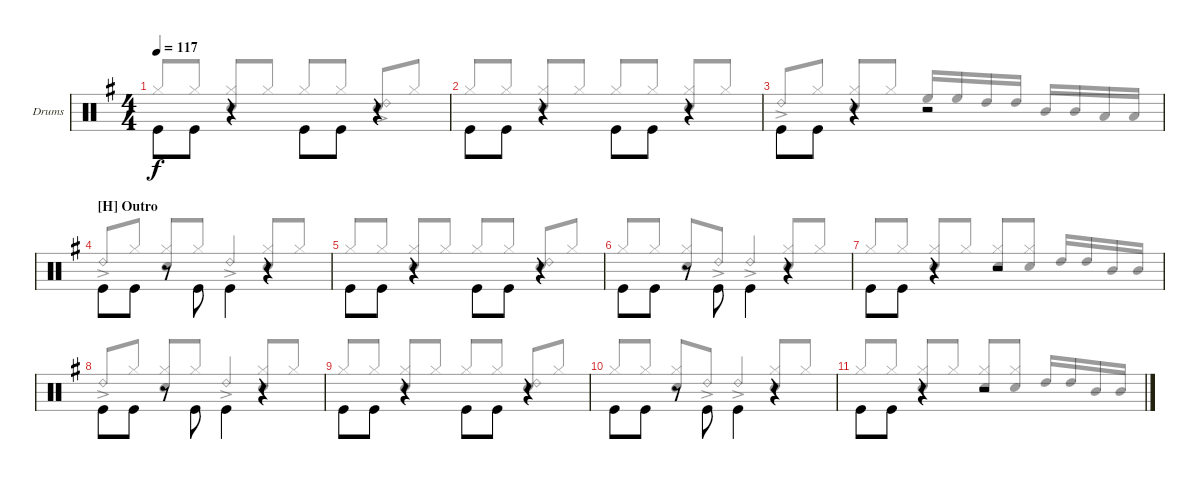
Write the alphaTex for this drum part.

\defaultSystemsLayout 4
\bracketExtendMode groupsimilarinstruments
\firstSystemTrackNameOrientation horizontal
\otherSystemsTrackNameOrientation horizontal
\track ("Drums" "Drums") {instrument percussion}
\staff {score}
\articulation defaults
\voice
\ts (4 4)
\tempo 117
\clef neutral
\scale
1.04288
\ks g "Kick (hit)".8{dy f beam invert} "Kick (hit)".8
r.4 "Kick (hit)".8{beam invert} "Kick (hit)".8 r.4 |
\scale
0.957125 "Kick (hit)".8{beam invert} "Kick (hit)".8 r.4 "Kick (hit)".8{beam invert} "Kick (hit)".8 r.4 |
\scale
1.04288 "Kick (hit)".8{beam invert} "Kick (hit)".8 r.4 r.2 |
\section ("H" "Outro")
\scale
0.957125 "Kick (hit)".8{beam invert} "Kick (hit)".8 r.8 "Kick (hit)".8{beam invert} "Kick (hit)".4{beam invert} r.4 |
\scale
1.04288 "Kick (hit)".8{beam invert} "Kick (hit)".8 r.4 "Kick (hit)".8{beam invert} "Kick (hit)".8 r.4 |
\scale
0.957125 "Kick (hit)".8{beam invert} "Kick (hit)".8 r.8 "Kick (hit)".8{beam invert} "Kick (hit)".4{beam invert} r.4 |
\scale
1.04288 "Kick (hit)".8{beam invert} "Kick (hit)".8 r.4 r.2 |
\scale
0.957125 "Kick (hit)".8{beam invert} "Kick (hit)".8 r.8 "Kick (hit)".8{beam invert} "Kick (hit)".4{beam invert} r.4 |
\scale
1.04288 "Kick (hit)".8{beam invert} "Kick (hit)".8 r.4 "Kick (hit)".8{beam invert} "Kick (hit)".8 r.4 |
\scale
0.957125 "Kick (hit)".8{beam invert} "Kick (hit)".8 r.8 "Kick (hit)".8{beam invert} "Kick (hit)".4{beam invert} r.4 |
\scale
1.04288 "Kick (hit)".8{beam invert} "Kick (hit)".8 r.4 r.2
\voice
\clef neutral
\ottava regular
\simile none
\scale
1.04288
\ks g "Hi-Hat (closed)".8{dy f beam invert} "Hi-Hat (closed)".8
("Hi-Hat (closed)" "Snare (hit) 2").8{beam invert} "Hi-Hat (closed)".8 "Hi-Hat (closed)".8{beam invert} "Hi-Hat (closed)".8 ("Snare (hit) 2" "Ride (bell) 2"{ac}).8{beam invert} "Hi-Hat (closed)".8 |
\scale
0.957125 "Hi-Hat (closed)".8{beam invert} "Hi-Hat (closed)".8 ("Hi-Hat (closed)" "Snare (hit) 2").8{beam invert} "Hi-Hat (closed)".8 "Hi-Hat (closed)".8{beam invert} "Hi-Hat (closed)".8 ("Snare (hit) 2" "Hi-Hat (closed)").8{beam invert} "Hi-Hat (closed)".8 |
\scale
1.04288 "Ride (bell) 2"{ac}.8{beam invert} "Hi-Hat (closed)".8 ("Hi-Hat (closed)" "Snare (hit) 2").8{beam invert} "Hi-Hat (closed)".8 "High Floor Tom (hit)".16{beam invert} "High Floor Tom (hit)".16 "High Tom (hit)".16 "High Tom (hit)".16 "Mid Tom (hit)".16{beam invert} "Mid Tom (hit)".16 "Low Tom (hit)".16 "Low Tom (hit)".16 |
\scale
0.957125 "Ride (bell) 2"{ac}.8{beam invert} "Hi-Hat (closed)".8 ("Hi-Hat (closed)" "Snare (hit) 2").8{beam invert} "Hi-Hat (closed)".8 "Ride (bell) 2"{ac}.4{beam invert} ("Hi-Hat (closed)" "Snare (hit) 2").8{beam invert} "Hi-Hat (closed)".8 |
\scale
1.04288 "Hi-Hat (closed)".8{beam invert} "Hi-Hat (closed)".8 ("Hi-Hat (closed)" "Snare (hit) 2").8{beam invert} "Hi-Hat (closed)".8 "Hi-Hat (closed)".8{beam invert} "Hi-Hat (closed)".8 ("Snare (hit) 2" "Ride (bell) 2").8{beam invert} "Hi-Hat (closed)".8 |
\scale
0.957125 "Hi-Hat (closed)".8{beam invert} "Hi-Hat (closed)".8 ("Hi-Hat (closed)" "Snare (hit) 2").8{beam invert} "Ride (bell) 2"{ac}.8 "Ride (bell) 2"{ac}.4{beam invert} ("Hi-Hat (closed)" "Snare (hit) 2").8{beam invert} "Hi-Hat (closed)".8 |
\scale
1.04288 "Hi-Hat (closed)".8{beam invert} "Hi-Hat (closed)".8 ("Hi-Hat (closed)" "Snare (hit) 2").8{beam invert} "Hi-Hat (closed)".8 ("Hi-Hat (closed)" "Snare (hit) 2").8{beam invert} ("Hi-Hat (closed)" "Snare (hit) 2").8 "High Tom (hit)".16{beam invert} "High Tom (hit)".16 "Mid Tom (hit)".16 "Mid Tom (hit)".16 |
\scale
0.957125 "Ride (bell) 2"{ac}.8{beam invert} "Hi-Hat (closed)".8 ("Hi-Hat (closed)" "Snare (hit) 2").8{beam invert} "Hi-Hat (closed)".8 "Ride (bell) 2"{ac}.4{beam invert} ("Hi-Hat (closed)" "Snare (hit) 2").8{beam invert} "Hi-Hat (closed)".8 |
\scale
1.04288 "Hi-Hat (closed)".8{beam invert} "Hi-Hat (closed)".8 ("Hi-Hat (closed)" "Snare (hit) 2").8{beam invert} "Hi-Hat (closed)".8 "Hi-Hat (closed)".8{beam invert} "Hi-Hat (closed)".8 ("Snare (hit) 2" "Ride (bell) 2").8{beam invert} "Hi-Hat (closed)".8 |
\scale
0.957125 "Hi-Hat (closed)".8{beam invert} "Hi-Hat (closed)".8 ("Hi-Hat (closed)" "Snare (hit) 2").8{beam invert} "Ride (bell) 2"{ac}.8 "Ride (bell) 2"{ac}.4{beam invert} ("Hi-Hat (closed)" "Snare (hit) 2").8{beam invert} "Hi-Hat (closed)".8 |
\scale
1.04288 "Hi-Hat (closed)".8{beam invert} "Hi-Hat (closed)".8 ("Hi-Hat (closed)" "Snare (hit) 2").8{beam invert} "Hi-Hat (closed)".8 ("Hi-Hat (closed)" "Snare (hit) 2").8{beam invert} ("Hi-Hat (closed)" "Snare (hit) 2").8 "High Tom (hit)".16{beam invert} "High Tom (hit)".16 "Mid Tom (hit)".16 "Mid Tom (hit)".16
